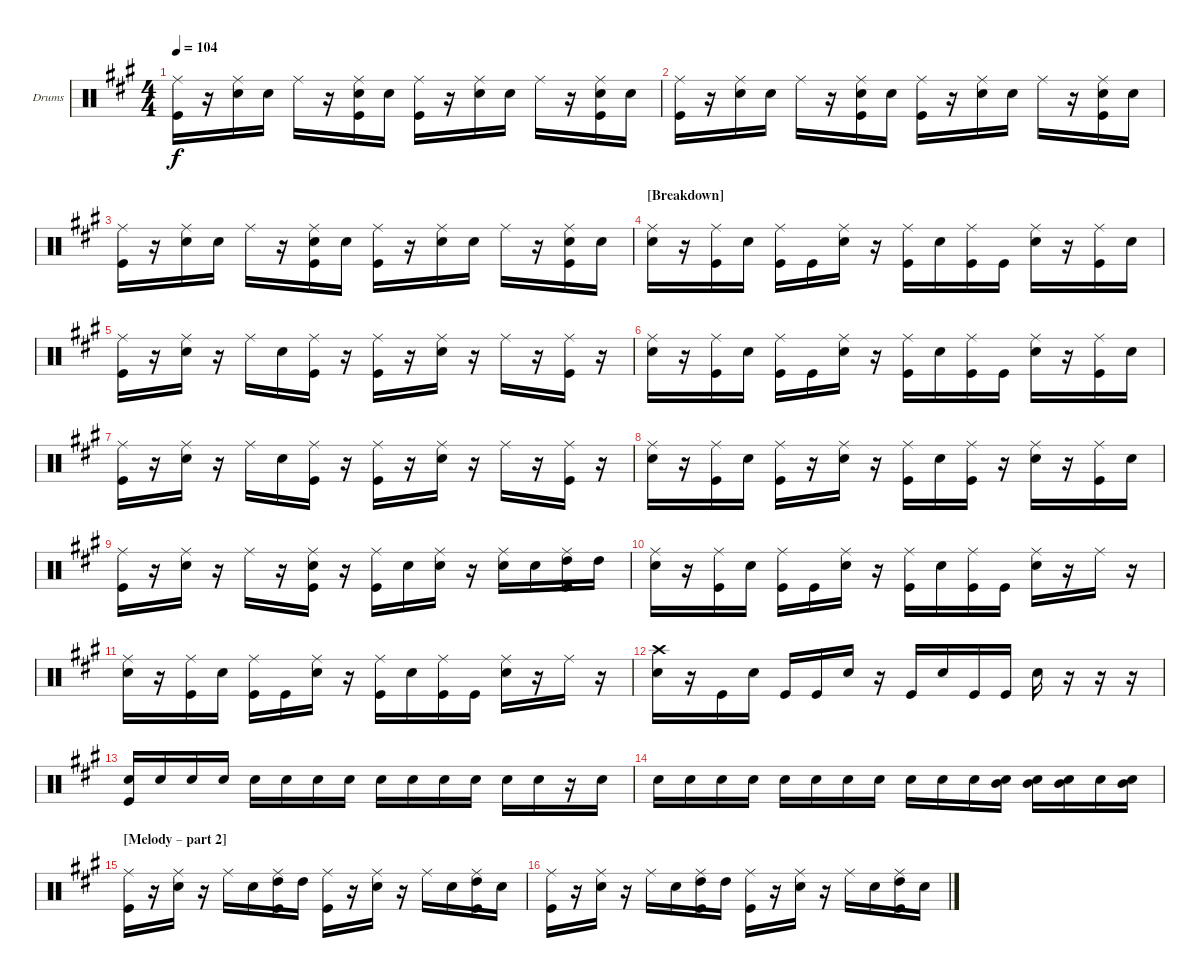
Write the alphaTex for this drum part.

\bracketExtendMode groupsimilarinstruments
\firstSystemTrackNameOrientation horizontal
\otherSystemsTrackNameOrientation horizontal
\track ("Drumkit" "Drums") {instrument percussion}
\staff {score}
\articulation defaults
\ts (4 4)
\tempo 104
\clef neutral
\ks a
("Ride (middle)" "Kick (hit)").16{dy f} r.16 ("Ride (middle)" "Snare (hit) 2").16 "Snare (hit) 2".16 "Ride (middle)".16 r.16 ("Ride (middle)" "Snare (hit) 2" "Kick (hit)").16 "Snare (hit) 2".16 ("Ride (middle)" "Kick (hit)").16 r.16 ("Ride (middle)" "Snare (hit) 2").16 "Snare (hit) 2".16 "Ride (middle)".16 r.16 ("Ride (middle)" "Snare (hit) 2" "Kick (hit)").16 "Snare (hit) 2".16 |
("Ride (middle)" "Kick (hit)").16 r.16 ("Ride (middle)" "Snare (hit) 2").16 "Snare (hit) 2".16 "Ride (middle)".16 r.16 ("Ride (middle)" "Snare (hit) 2" "Kick (hit)").16 "Snare (hit) 2".16 ("Ride (middle)" "Kick (hit)").16 r.16 ("Ride (middle)" "Snare (hit) 2").16 "Snare (hit) 2".16 "Ride (middle)".16 r.16 ("Ride (middle)" "Snare (hit) 2" "Kick (hit)").16 "Snare (hit) 2".16 |
("Ride (middle)" "Kick (hit)").16 r.16 ("Ride (middle)" "Snare (hit) 2").16 "Snare (hit) 2".16 "Ride (middle)".16 r.16 ("Ride (middle)" "Snare (hit) 2" "Kick (hit)").16 "Snare (hit) 2".16 ("Ride (middle)" "Kick (hit)").16 r.16 ("Ride (middle)" "Snare (hit) 2").16 "Snare (hit) 2".16 "Ride (middle)".16 r.16 ("Ride (middle)" "Snare (hit) 2" "Kick (hit)").16 "Snare (hit) 2".16 |
\section ("" "[Breakdown]")
("Ride (middle)" "Snare (hit) 2").16 r.16 ("Ride (middle)" "Kick (hit)").16 "Snare (hit) 2".16 ("Ride (middle)" "Kick (hit)").16 "Kick (hit)".16 ("Ride (middle)" "Snare (hit) 2").16 r.16 ("Ride (middle)" "Kick (hit)").16 "Snare (hit) 2".16 ("Ride (middle)" "Kick (hit)").16 "Kick (hit)".16 ("Ride (middle)" "Snare (hit) 2").16 r.16 ("Ride (middle)" "Kick (hit)").16 "Snare (hit) 2".16 |
("Ride (middle)" "Kick (hit)").16 r.16 ("Ride (middle)" "Snare (hit) 2").16 r.16 "Ride (middle)".16 "Snare (hit) 2".16 ("Ride (middle)" "Kick (hit)").16 r.16 ("Ride (middle)" "Kick (hit)").16 r.16 ("Ride (middle)" "Snare (hit) 2").16 r.16 "Ride (middle)".16 r.16 ("Ride (middle)" "Kick (hit)").16 r.16 |
("Ride (middle)" "Snare (hit) 2").16 r.16 ("Ride (middle)" "Kick (hit)").16 "Snare (hit) 2".16 ("Ride (middle)" "Kick (hit)").16 "Kick (hit)".16 ("Ride (middle)" "Snare (hit) 2").16 r.16 ("Ride (middle)" "Kick (hit)").16 "Snare (hit) 2".16 ("Ride (middle)" "Kick (hit)").16 "Kick (hit)".16 ("Ride (middle)" "Snare (hit) 2").16 r.16 ("Ride (middle)" "Kick (hit)").16 "Snare (hit) 2".16 |
("Ride (middle)" "Kick (hit)").16 r.16 ("Ride (middle)" "Snare (hit) 2").16 r.16 "Ride (middle)".16 "Snare (hit) 2".16 ("Ride (middle)" "Kick (hit)").16 r.16 ("Ride (middle)" "Kick (hit)").16 r.16 ("Ride (middle)" "Snare (hit) 2").16 r.16 "Ride (middle)".16 r.16 ("Ride (middle)" "Kick (hit)").16 r.16 |
("Ride (middle)" "Snare (hit) 2").16 r.16 ("Ride (middle)" "Kick (hit)").16 "Snare (hit) 2".16 ("Ride (middle)" "Kick (hit)").16 r.16 ("Ride (middle)" "Snare (hit) 2").16 r.16 ("Ride (middle)" "Kick (hit)").16 "Snare (hit) 2".16 ("Ride (middle)" "Kick (hit)").16 r.16 ("Ride (middle)" "Snare (hit) 2").16 r.16 ("Ride (middle)" "Kick (hit)").16 "Snare (hit) 2".16 |
("Ride (middle)" "Kick (hit)").16 r.16 ("Ride (middle)" "Snare (hit) 2").16 r.16 "Ride (middle)".16 r.16 ("Ride (middle)" "Snare (hit) 2" "Kick (hit)").16 r.16 ("Ride (middle)" "Kick (hit)").16 "Snare (hit) 2".16 ("Ride (middle)" "Snare (hit) 2").16 r.16 ("Ride (middle)" "Snare (hit) 2").16 "Snare (hit) 2".16 ("Ride (middle)" "High Tom (hit)" "Kick (hit)").16 "High Tom (hit)".16 |
("Ride (middle)" "Snare (hit) 2").16 r.16 ("Ride (middle)" "Kick (hit)").16 "Snare (hit) 2".16 ("Ride (middle)" "Kick (hit)").16 "Kick (hit)".16 ("Ride (middle)" "Snare (hit) 2").16 r.16 ("Ride (middle)" "Kick (hit)").16 "Snare (hit) 2".16 ("Ride (middle)" "Kick (hit)").16 "Kick (hit)".16 ("Ride (middle)" "Snare (hit) 2").16 r.16 "Ride (middle)".16 r.16 |
("Ride (middle)" "Snare (hit) 2").16 r.16 ("Ride (middle)" "Kick (hit)").16 "Snare (hit) 2".16 ("Ride (middle)" "Kick (hit)").16 "Kick (hit)".16 ("Ride (middle)" "Snare (hit) 2").16 r.16 ("Ride (middle)" "Kick (hit)").16 "Snare (hit) 2".16 ("Ride (middle)" "Kick (hit)").16 "Kick (hit)".16 ("Ride (middle)" "Snare (hit) 2").16 r.16 "Ride (middle)".16 r.16 |
("Crash high (hit)" "Snare (hit) 2").16 r.16 "Kick (hit)".16 "Snare (hit) 2".16 "Kick (hit)".16 "Kick (hit)".16 "Snare (hit) 2".16 r.16 "Kick (hit)".16 "Snare (hit) 2".16 "Kick (hit)".16 "Kick (hit)".16 "Snare (hit) 2".16 r.16 r.16 r.16 |
("Snare (hit) 2" "Kick (hit)").16 "Snare (hit) 2".16 "Snare (hit) 2".16 "Snare (hit) 2".16 "Snare (hit) 2".16 "Snare (hit) 2".16 "Snare (hit) 2".16 "Snare (hit) 2".16 "Snare (hit) 2".16 "Snare (hit) 2".16 "Snare (hit) 2".16 "Snare (hit) 2".16 "Snare (hit) 2".16 "Snare (hit) 2".16 r.16 "Snare (hit) 2".16 |
"Snare (hit) 2".16 "Snare (hit) 2".16 "Snare (hit) 2".16 "Snare (hit) 2".16 "Snare (hit) 2".16 "Snare (hit) 2".16 "Snare (hit) 2".16 "Snare (hit) 2".16 "Snare (hit) 2".16 "Snare (hit) 2".16 "Snare (hit) 2".16 ("Mid Tom (hit)" "Snare (hit) 2").16 ("Mid Tom (hit)" "Snare (hit) 2").16 ("Mid Tom (hit)" "Snare (hit) 2").16 "Snare (hit) 2".16 ("Mid Tom (hit)" "Snare (hit) 2").16 |
\section ("" "[Melody – part 2] ")
("Ride (middle)" "Kick (hit)").16 r.16 ("Ride (middle)" "Snare (hit) 2").16 r.16 "Ride (middle)".16 "Snare (hit) 2".16 ("Ride (middle)" "High Tom (hit)" "Kick (hit)").16 "High Tom (hit)".16 ("Ride (middle)" "Kick (hit)").16 r.16 ("Ride (middle)" "Snare (hit) 2").16 r.16 "Ride (middle)".16 "Snare (hit) 2".16 ("Ride (middle)" "High Tom (hit)" "Kick (hit)").16 "Snare (hit) 2".16 |
("Ride (middle)" "Kick (hit)").16 r.16 ("Ride (middle)" "Snare (hit) 2").16 r.16 "Ride (middle)".16 "Snare (hit) 2".16 ("Ride (middle)" "High Tom (hit)" "Kick (hit)").16 "High Tom (hit)".16 ("Ride (middle)" "Kick (hit)").16 r.16 ("Ride (middle)" "Snare (hit) 2").16 r.16 "Ride (middle)".16 "Snare (hit) 2".16 ("Ride (middle)" "High Tom (hit)" "Kick (hit)").16 "Snare (hit) 2".16
